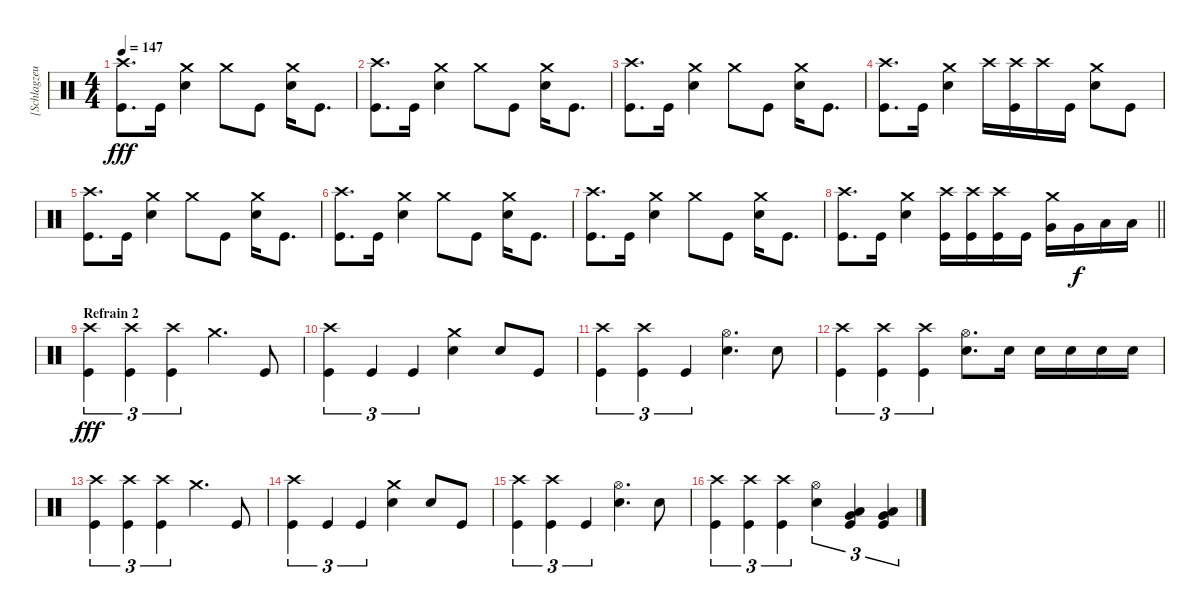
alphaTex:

\track ("[Schlagzeug]" "[Schlagzeu") {instrument percussion}
\staff {score}
\articulation defaults
\ts (4 4)
\tempo 147
\clef neutral
\ks c
("Crash high (hit)" "Kick (hit)").8{d dy fff} "Kick (hit)".16 ("Crash medium (hit)" "Electric Snare (hit)").4 "Crash medium (hit)".8 "Kick (hit)".8 ("Crash medium (hit)" "Electric Snare (hit)").16 "Kick (hit)".8{d} |
("Crash high (hit)" "Kick (hit)").8{d} "Kick (hit)".16 ("Crash medium (hit)" "Electric Snare (hit)").4 "Crash medium (hit)".8 "Kick (hit)".8 ("Crash medium (hit)" "Electric Snare (hit)").16 "Kick (hit)".8{d} |
("Crash high (hit)" "Kick (hit)").8{d} "Kick (hit)".16 ("Crash medium (hit)" "Electric Snare (hit)").4 "Crash medium (hit)".8 "Kick (hit)".8 ("Crash medium (hit)" "Electric Snare (hit)").16 "Kick (hit)".8{d} |
("Crash high (hit)" "Kick (hit)").8{d} "Kick (hit)".16 ("Crash medium (hit)" "Electric Snare (hit)").4 "Crash high (hit)".16 ("Crash high (hit)" "Kick (hit)").16 "Crash high (hit)".16 "Kick (hit)".16 ("Crash medium (hit)" "Electric Snare (hit)").8 "Kick (hit)".8 |
("Crash high (hit)" "Kick (hit)").8{d} "Kick (hit)".16 ("Crash medium (hit)" "Electric Snare (hit)").4 "Crash medium (hit)".8 "Kick (hit)".8 ("Crash medium (hit)" "Electric Snare (hit)").16 "Kick (hit)".8{d} |
("Crash high (hit)" "Kick (hit)").8{d} "Kick (hit)".16 ("Crash medium (hit)" "Electric Snare (hit)").4 "Crash medium (hit)".8 "Kick (hit)".8 ("Crash medium (hit)" "Electric Snare (hit)").16 "Kick (hit)".8{d} |
("Crash high (hit)" "Kick (hit)").8{d} "Kick (hit)".16 ("Crash medium (hit)" "Electric Snare (hit)").4 "Crash medium (hit)".8 "Kick (hit)".8 ("Crash medium (hit)" "Electric Snare (hit)").16 "Kick (hit)".8{d} |
\barLineRight lightlight
("Crash high (hit)" "Kick (hit)").8{d} "Kick (hit)".16 ("Crash medium (hit)" "Electric Snare (hit)").4 ("Crash high (hit)" "Kick (hit)").16 ("Crash high (hit)" "Kick (hit)").16 ("Crash high (hit)" "Kick (hit)").16 "Kick (hit)".16 ("Crash medium (hit)" "Very Low Tom (hit)").16 "Very Low Tom (hit)".16{dy f} "Low Floor Tom (hit)".16 "Low Floor Tom (hit)".16 |
\section ("" "Refrain 2")
("Crash high (hit)" "Kick (hit)").4{tu (3 2) dy fff} ("Crash high (hit)" "Kick (hit)").4{tu (3 2)} ("Crash high (hit)" "Kick (hit)").4{tu (3 2)} "Crash medium (hit)".4{d} "Kick (hit)".8 |
("Crash high (hit)" "Kick (hit)").4{tu (3 2)} "Kick (hit)".4{tu (3 2)} "Kick (hit)".4{tu (3 2)} ("Crash medium (hit)" "Electric Snare (hit)").4 "Electric Snare (hit)".8 "Kick (hit)".8 |
("Crash high (hit)" "Kick (hit)").4{tu (3 2)} ("Crash high (hit)" "Kick (hit)").4{tu (3 2)} "Kick (hit)".4{tu (3 2)} ("Hi-Hat (open)" "Electric Snare (hit)").4{d} "Electric Snare (hit)".8 |
("Crash high (hit)" "Kick (hit)").4{tu (3 2)} ("Crash high (hit)" "Kick (hit)").4{tu (3 2)} ("Crash high (hit)" "Kick (hit)").4{tu (3 2)} ("Hi-Hat (open)" "Electric Snare (hit)").8{d} "Electric Snare (hit)".16 "Electric Snare (hit)".16 "Electric Snare (hit)".16 "Electric Snare (hit)".16 "Electric Snare (hit)".16 |
("Crash high (hit)" "Kick (hit)").4{tu (3 2)} ("Crash high (hit)" "Kick (hit)").4{tu (3 2)} ("Crash high (hit)" "Kick (hit)").4{tu (3 2)} "Crash medium (hit)".4{d} "Kick (hit)".8 |
("Crash high (hit)" "Kick (hit)").4{tu (3 2)} "Kick (hit)".4{tu (3 2)} "Kick (hit)".4{tu (3 2)} ("Crash medium (hit)" "Electric Snare (hit)").4 "Electric Snare (hit)".8 "Kick (hit)".8 |
("Crash high (hit)" "Kick (hit)").4{tu (3 2)} ("Crash high (hit)" "Kick (hit)").4{tu (3 2)} "Kick (hit)".4{tu (3 2)} ("Hi-Hat (open)" "Electric Snare (hit)").4{d} "Electric Snare (hit)".8 |
("Crash high (hit)" "Kick (hit)").4{tu (3 2)} ("Crash high (hit)" "Kick (hit)").4{tu (3 2)} ("Crash high (hit)" "Kick (hit)").4{tu (3 2)} ("Hi-Hat (open)" "Electric Snare (hit)").4{tu (3 2)} ("Kick (hit)" "Very Low Tom (hit)" "Low Tom (hit)").4{tu (3 2)} ("Kick (hit)" "Very Low Tom (hit)" "Low Tom (hit)").4{tu (3 2)}
